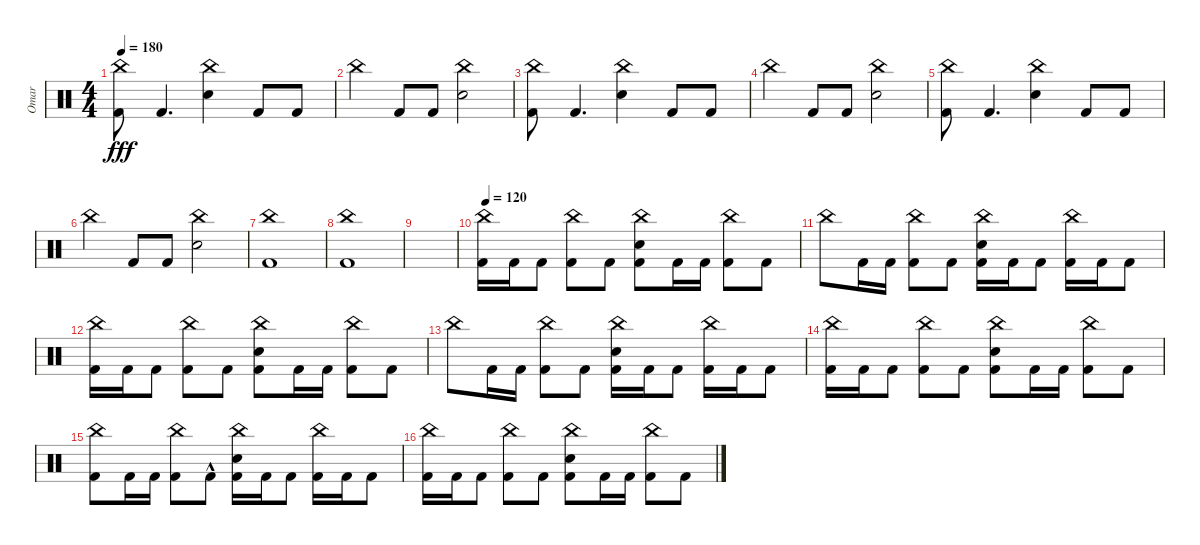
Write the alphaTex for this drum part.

\track ("Omar" "Omar") {instrument percussion}
\staff {score}
\articulation defaults
\ts (4 4)
\tempo 180
\clef neutral
\ks c
("China (hit)" "Kick (hit) 2").8{dy fff} "Kick (hit) 2".4{d} ("China (hit)" "Electric Snare (hit)").4 "Kick (hit) 2".8 "Kick (hit) 2".8 |
"China (hit)".4 "Kick (hit) 2".8 "Kick (hit) 2".8 ("China (hit)" "Electric Snare (hit)").2 |
("China (hit)" "Kick (hit) 2").8 "Kick (hit) 2".4{d} ("China (hit)" "Electric Snare (hit)").4 "Kick (hit) 2".8 "Kick (hit) 2".8 |
"China (hit)".4 "Kick (hit) 2".8 "Kick (hit) 2".8 ("China (hit)" "Electric Snare (hit)").2 |
("China (hit)" "Kick (hit) 2").8 "Kick (hit) 2".4{d} ("China (hit)" "Electric Snare (hit)").4 "Kick (hit) 2".8 "Kick (hit) 2".8 |
"China (hit)".4 "Kick (hit) 2".8 "Kick (hit) 2".8 ("China (hit)" "Electric Snare (hit)").2 |
("China (hit)" "Kick (hit) 2").1 |
("China (hit)" "Kick (hit) 2").1 |
|
\tempo 120
("China (hit)" "Kick (hit) 2").16 "Kick (hit) 2".16 "Kick (hit) 2".8 ("China (hit)" "Kick (hit) 2").8 "Kick (hit) 2".8 ("China (hit)" "Electric Snare (hit)" "Kick (hit) 2").8 "Kick (hit) 2".16 "Kick (hit) 2".16 ("China (hit)" "Kick (hit) 2").8 "Kick (hit) 2".8 |
"China (hit)".8 "Kick (hit) 2".16 "Kick (hit) 2".16 ("China (hit)" "Kick (hit) 2").8 "Kick (hit) 2".8 ("China (hit)" "Electric Snare (hit)" "Kick (hit) 2").16 "Kick (hit) 2".16 "Kick (hit) 2".8 ("China (hit)" "Kick (hit) 2").16 "Kick (hit) 2".16 "Kick (hit) 2".8 |
("China (hit)" "Kick (hit) 2").16 "Kick (hit) 2".16 "Kick (hit) 2".8 ("China (hit)" "Kick (hit) 2").8 "Kick (hit) 2".8 ("China (hit)" "Electric Snare (hit)" "Kick (hit) 2").8 "Kick (hit) 2".16 "Kick (hit) 2".16 ("China (hit)" "Kick (hit) 2").8 "Kick (hit) 2".8 |
"China (hit)".8 "Kick (hit) 2".16 "Kick (hit) 2".16 ("China (hit)" "Kick (hit) 2").8 "Kick (hit) 2".8 ("China (hit)" "Electric Snare (hit)" "Kick (hit) 2").16 "Kick (hit) 2".16 "Kick (hit) 2".8 ("China (hit)" "Kick (hit) 2").16 "Kick (hit) 2".16 "Kick (hit) 2".8 |
("China (hit)" "Kick (hit) 2").16 "Kick (hit) 2".16 "Kick (hit) 2".8 ("China (hit)" "Kick (hit) 2").8 "Kick (hit) 2".8 ("China (hit)" "Electric Snare (hit)" "Kick (hit) 2").8 "Kick (hit) 2".16 "Kick (hit) 2".16 ("China (hit)" "Kick (hit) 2").8 "Kick (hit) 2".8 |
("China (hit)" "Kick (hit) 2").8 "Kick (hit) 2".16 "Kick (hit) 2".16 ("China (hit)" "Kick (hit) 2").8 "Kick (hit) 2"{hac}.8 ("China (hit)" "Electric Snare (hit)" "Kick (hit) 2").16 "Kick (hit) 2".16 "Kick (hit) 2".8 ("China (hit)" "Kick (hit) 2").16 "Kick (hit) 2".16 "Kick (hit) 2".8 |
("China (hit)" "Kick (hit) 2").16 "Kick (hit) 2".16 "Kick (hit) 2".8 ("China (hit)" "Kick (hit) 2").8 "Kick (hit) 2".8 ("China (hit)" "Electric Snare (hit)" "Kick (hit) 2").8 "Kick (hit) 2".16 "Kick (hit) 2".16 ("China (hit)" "Kick (hit) 2").8 "Kick (hit) 2".8
